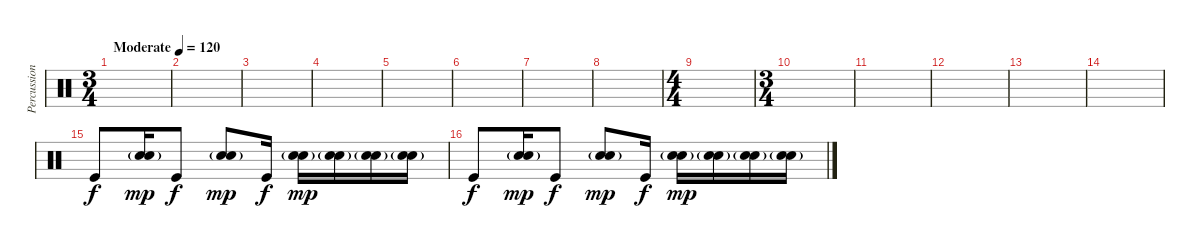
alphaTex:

\track ("Percussion" "Percussion") {instrument percussion}
\staff {score}
\articulation defaults
\ts (3 4)
\tempo (120 "Moderate")
\clef neutral
\ks c
|
|
|
|
|
|
|
|
\ts (4 4)
|
\ts (3 4)
|
|
|
|
|
"Kick (hit)".8 ("Hand Clap (hit)" "Snare (hit) 2"{g}).16{dy mp} "Kick (hit)".8{dy f} ("Hand Clap (hit)" "Snare (hit) 2"{g}).8{dy mp} "Kick (hit)".16{dy f} ("Hand Clap (hit)" "Snare (hit) 2"{g}).16{dy mp} ("Hand Clap (hit)" "Snare (hit) 2"{g}).16 ("Hand Clap (hit)" "Snare (hit) 2"{g}).16 ("Hand Clap (hit)" "Snare (hit) 2"{g}).16 |
"Kick (hit)".8{dy f} ("Hand Clap (hit)" "Snare (hit) 2"{g}).16{dy mp} "Kick (hit)".8{dy f} ("Hand Clap (hit)" "Snare (hit) 2"{g}).8{dy mp} "Kick (hit)".16{dy f} ("Hand Clap (hit)" "Snare (hit) 2"{g}).16{dy mp} ("Hand Clap (hit)" "Snare (hit) 2"{g}).16 ("Hand Clap (hit)" "Snare (hit) 2"{g}).16 ("Hand Clap (hit)" "Snare (hit) 2"{g}).16
